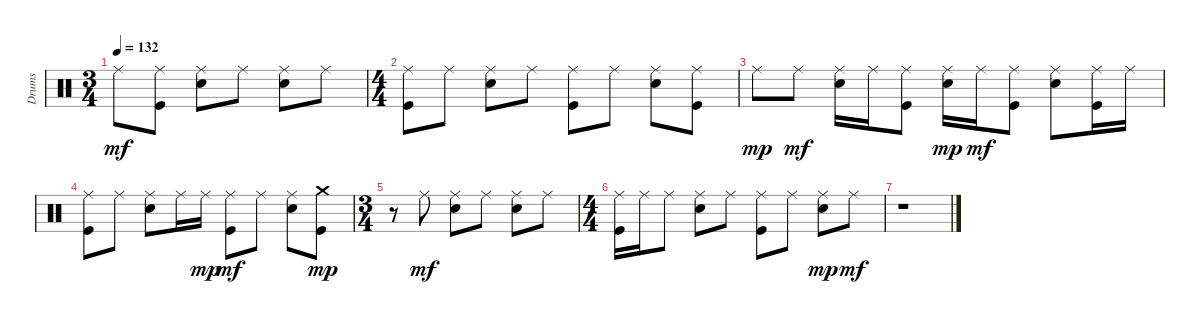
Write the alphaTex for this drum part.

\track ("Drums" "Drums") {instrument percussion}
\staff {score}
\articulation defaults
\ts (3 4)
\tempo 132
\clef neutral
\ks c "Ride (middle)".8{dy mf}
("Kick (hit)" "Ride (middle)").8 ("Electric Snare (hit)" "Ride (middle)").8 "Ride (middle)".8 ("Electric Snare (hit)" "Ride (middle)").8 "Ride (middle)".8 |
\ts (4 4)
("Kick (hit)" "Ride (middle)").8 "Ride (middle)".8 ("Electric Snare (hit)" "Ride (middle)").8 "Ride (middle)".8 ("Kick (hit)" "Ride (middle)").8 "Ride (middle)".8 ("Electric Snare (hit)" "Ride (middle)").8 ("Kick (hit)" "Ride (middle)").8 |
"Ride (middle)".8{dy mp volume 3} "Ride (middle)".8{dy mf} ("Electric Snare (hit)" "Ride (middle)").16 "Ride (middle)".16 ("Kick (hit)" "Ride (middle)").8 ("Electric Snare (hit)" "Ride (middle)").16{dy mp} "Ride (middle)".16{dy mf} ("Kick (hit)" "Ride (middle)").8 ("Electric Snare (hit)" "Ride (middle)").8 ("Kick (hit)" "Ride (middle)").16 "Ride (middle)".16 |
("Kick (hit)" "Ride (middle)").8 "Ride (middle)".8 ("Electric Snare (hit)" "Ride (middle)").8 "Ride (middle)".16 "Ride (middle)".16{dy mp} ("Kick (hit)" "Ride (middle)").8{dy mf} "Ride (middle)".8 ("Electric Snare (hit)" "Ride (middle)").8 ("Kick (hit)" "Crash medium (hit)").8{dy mp} |
\ts (3 4)
r.8 "Ride (middle)".8{dy mf} ("Electric Snare (hit)" "Ride (middle)").8 "Ride (middle)".8 ("Electric Snare (hit)" "Ride (middle)").8 "Ride (middle)".8 |
\ts (4 4)
("Kick (hit)" "Ride (middle)").16 "Ride (middle)".16 "Ride (middle)".8 ("Electric Snare (hit)" "Ride (middle)").8 "Ride (middle)".8 ("Kick (hit)" "Ride (middle)").8 "Ride (middle)".8 ("Electric Snare (hit)" "Ride (middle)").8{dy mp} "Ride (middle)".8{dy mf} |
r.1
